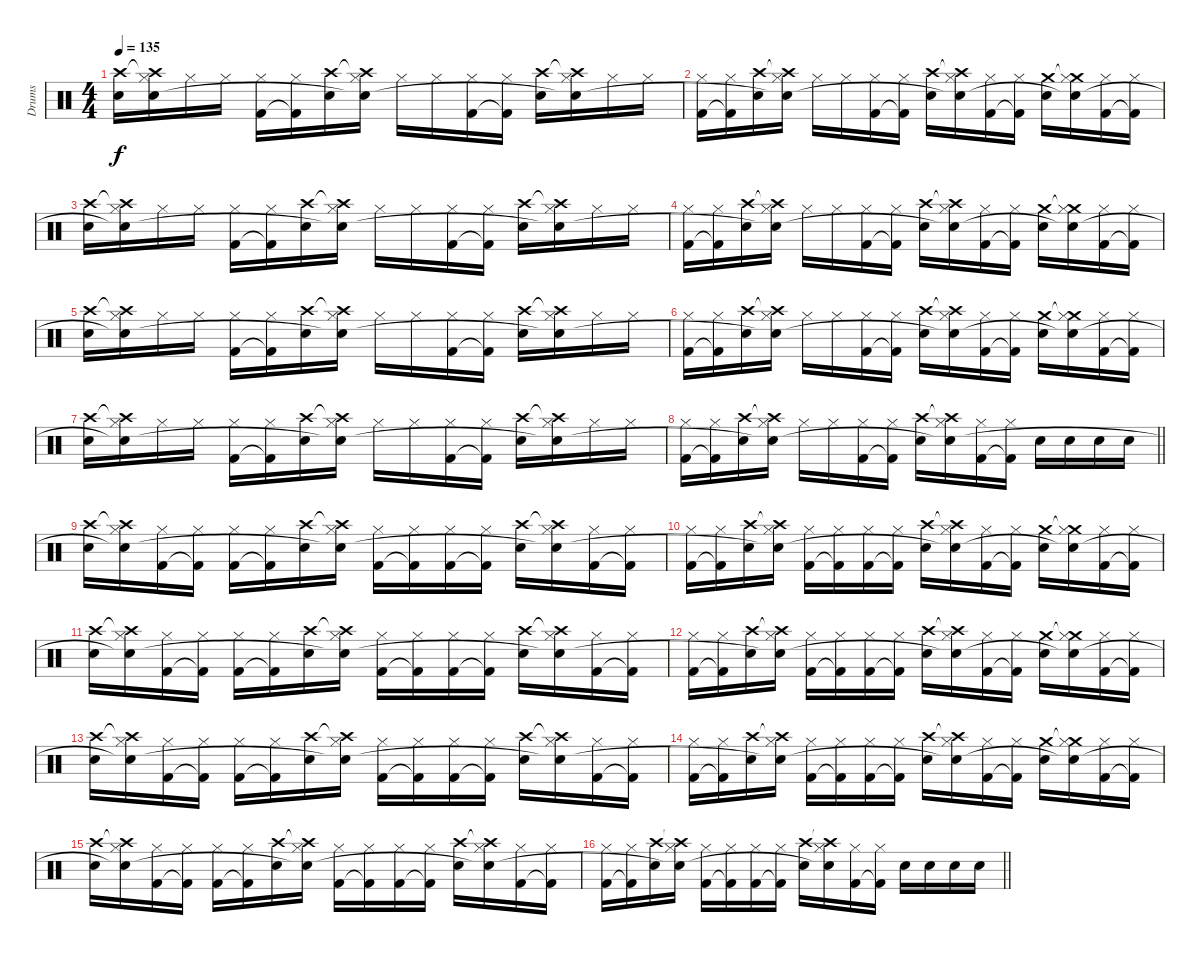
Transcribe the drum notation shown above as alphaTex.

\track ("Drums" "Drums") {instrument percussion}
\staff {score}
\articulation defaults
\ts (4 4)
\tempo 135
\clef neutral
\ks c
("Crash high (hit)" "Snare (hit) 2").16{dy f} ("Crash high (hit)"{t} "Hi-Hat (closed)" "Snare (hit) 2"{t}).16 "Hi-Hat (closed)".16 "Hi-Hat (closed)".16 ("Hi-Hat (closed)" "Kick (hit) 2").16 ("Hi-Hat (closed)" "Kick (hit) 2"{t}).16 ("Crash high (hit)" "Snare (hit) 2").16 ("Crash high (hit)"{t} "Hi-Hat (closed)" "Snare (hit) 2"{t}).16 "Hi-Hat (closed)".16 "Hi-Hat (closed)".16 ("Hi-Hat (closed)" "Kick (hit) 2").16 ("Hi-Hat (closed)" "Kick (hit) 2"{t}).16 ("Crash high (hit)" "Snare (hit) 2").16 ("Crash high (hit)"{t} "Hi-Hat (closed)" "Snare (hit) 2"{t}).16 "Hi-Hat (closed)".16 "Hi-Hat (closed)".16 |
("Hi-Hat (closed)" "Kick (hit) 2").16 ("Hi-Hat (closed)" "Kick (hit) 2"{t}).16 ("Crash high (hit)" "Snare (hit) 2").16 ("Crash high (hit)"{t} "Hi-Hat (closed)" "Snare (hit) 2"{t}).16 "Hi-Hat (closed)".16 "Hi-Hat (closed)".16 ("Hi-Hat (closed)" "Kick (hit) 2").16 ("Hi-Hat (closed)" "Kick (hit) 2"{t}).16 ("Crash high (hit)" "Snare (hit) 2").16 ("Crash high (hit)"{t} "Hi-Hat (closed)" "Snare (hit) 2"{t}).16 ("Hi-Hat (closed)" "Kick (hit) 2").16 ("Hi-Hat (closed)" "Kick (hit) 2"{t}).16 ("Crash medium (hit)" "Snare (hit) 2").16 ("Crash medium (hit)"{t} "Hi-Hat (closed)" "Snare (hit) 2"{t}).16 ("Hi-Hat (closed)" "Kick (hit) 2").16 ("Hi-Hat (closed)" "Kick (hit) 2"{t}).16 |
("Crash high (hit)" "Snare (hit) 2").16 ("Crash high (hit)"{t} "Hi-Hat (closed)" "Snare (hit) 2"{t}).16 "Hi-Hat (closed)".16 "Hi-Hat (closed)".16 ("Hi-Hat (closed)" "Kick (hit) 2").16 ("Hi-Hat (closed)" "Kick (hit) 2"{t}).16 ("Crash high (hit)" "Snare (hit) 2").16 ("Crash high (hit)"{t} "Hi-Hat (closed)" "Snare (hit) 2"{t}).16 "Hi-Hat (closed)".16 "Hi-Hat (closed)".16 ("Hi-Hat (closed)" "Kick (hit) 2").16 ("Hi-Hat (closed)" "Kick (hit) 2"{t}).16 ("Crash high (hit)" "Snare (hit) 2").16 ("Crash high (hit)"{t} "Hi-Hat (closed)" "Snare (hit) 2"{t}).16 "Hi-Hat (closed)".16 "Hi-Hat (closed)".16 |
("Hi-Hat (closed)" "Kick (hit) 2").16 ("Hi-Hat (closed)" "Kick (hit) 2"{t}).16 ("Crash high (hit)" "Snare (hit) 2").16 ("Crash high (hit)"{t} "Hi-Hat (closed)" "Snare (hit) 2"{t}).16 "Hi-Hat (closed)".16 "Hi-Hat (closed)".16 ("Hi-Hat (closed)" "Kick (hit) 2").16 ("Hi-Hat (closed)" "Kick (hit) 2"{t}).16 ("Crash high (hit)" "Snare (hit) 2").16 ("Crash high (hit)"{t} "Hi-Hat (closed)" "Snare (hit) 2"{t}).16 ("Hi-Hat (closed)" "Kick (hit) 2").16 ("Hi-Hat (closed)" "Kick (hit) 2"{t}).16 ("Crash medium (hit)" "Snare (hit) 2").16 ("Crash medium (hit)"{t} "Hi-Hat (closed)" "Snare (hit) 2"{t}).16 ("Hi-Hat (closed)" "Kick (hit) 2").16 ("Hi-Hat (closed)" "Kick (hit) 2"{t}).16 |
("Crash high (hit)" "Snare (hit) 2").16 ("Crash high (hit)"{t} "Hi-Hat (closed)" "Snare (hit) 2"{t}).16 "Hi-Hat (closed)".16 "Hi-Hat (closed)".16 ("Hi-Hat (closed)" "Kick (hit) 2").16 ("Hi-Hat (closed)" "Kick (hit) 2"{t}).16 ("Crash high (hit)" "Snare (hit) 2").16 ("Crash high (hit)"{t} "Hi-Hat (closed)" "Snare (hit) 2"{t}).16 "Hi-Hat (closed)".16 "Hi-Hat (closed)".16 ("Hi-Hat (closed)" "Kick (hit) 2").16 ("Hi-Hat (closed)" "Kick (hit) 2"{t}).16 ("Crash high (hit)" "Snare (hit) 2").16 ("Crash high (hit)"{t} "Hi-Hat (closed)" "Snare (hit) 2"{t}).16 "Hi-Hat (closed)".16 "Hi-Hat (closed)".16 |
("Hi-Hat (closed)" "Kick (hit) 2").16 ("Hi-Hat (closed)" "Kick (hit) 2"{t}).16 ("Crash high (hit)" "Snare (hit) 2").16 ("Crash high (hit)"{t} "Hi-Hat (closed)" "Snare (hit) 2"{t}).16 "Hi-Hat (closed)".16 "Hi-Hat (closed)".16 ("Hi-Hat (closed)" "Kick (hit) 2").16 ("Hi-Hat (closed)" "Kick (hit) 2"{t}).16 ("Crash high (hit)" "Snare (hit) 2").16 ("Crash high (hit)"{t} "Hi-Hat (closed)" "Snare (hit) 2"{t}).16 ("Hi-Hat (closed)" "Kick (hit) 2").16 ("Hi-Hat (closed)" "Kick (hit) 2"{t}).16 ("Crash medium (hit)" "Snare (hit) 2").16 ("Crash medium (hit)"{t} "Hi-Hat (closed)" "Snare (hit) 2"{t}).16 ("Hi-Hat (closed)" "Kick (hit) 2").16 ("Hi-Hat (closed)" "Kick (hit) 2"{t}).16 |
("Crash high (hit)" "Snare (hit) 2").16 ("Crash high (hit)"{t} "Hi-Hat (closed)" "Snare (hit) 2"{t}).16 "Hi-Hat (closed)".16 "Hi-Hat (closed)".16 ("Hi-Hat (closed)" "Kick (hit) 2").16 ("Hi-Hat (closed)" "Kick (hit) 2"{t}).16 ("Crash high (hit)" "Snare (hit) 2").16 ("Crash high (hit)"{t} "Hi-Hat (closed)" "Snare (hit) 2"{t}).16 "Hi-Hat (closed)".16 "Hi-Hat (closed)".16 ("Hi-Hat (closed)" "Kick (hit) 2").16 ("Hi-Hat (closed)" "Kick (hit) 2"{t}).16 ("Crash high (hit)" "Snare (hit) 2").16 ("Crash high (hit)"{t} "Hi-Hat (closed)" "Snare (hit) 2"{t}).16 "Hi-Hat (closed)".16 "Hi-Hat (closed)".16 |
\barLineRight lightlight
("Hi-Hat (closed)" "Kick (hit) 2").16 ("Hi-Hat (closed)" "Kick (hit) 2"{t}).16 ("Crash high (hit)" "Snare (hit) 2").16 ("Crash high (hit)"{t} "Hi-Hat (closed)" "Snare (hit) 2"{t}).16 "Hi-Hat (closed)".16 "Hi-Hat (closed)".16 ("Hi-Hat (closed)" "Kick (hit) 2").16 ("Hi-Hat (closed)" "Kick (hit) 2"{t}).16 ("Crash high (hit)" "Snare (hit) 2").16 ("Crash high (hit)"{t} "Hi-Hat (closed)" "Snare (hit) 2"{t}).16 ("Hi-Hat (closed)" "Kick (hit) 2").16 ("Hi-Hat (closed)" "Kick (hit) 2"{t}).16 "Snare (hit) 2".16 "Snare (hit) 2".16 "Snare (hit) 2".16 "Snare (hit) 2".16 |
("Crash high (hit)" "Snare (hit) 2").16 ("Crash high (hit)"{t} "Hi-Hat (closed)" "Snare (hit) 2"{t}).16 ("Hi-Hat (closed)" "Kick (hit) 2").16 ("Hi-Hat (closed)" "Kick (hit) 2"{t}).16 ("Hi-Hat (closed)" "Kick (hit) 2").16 ("Hi-Hat (closed)" "Kick (hit) 2"{t}).16 ("Crash high (hit)" "Snare (hit) 2").16 ("Crash high (hit)"{t} "Hi-Hat (closed)" "Snare (hit) 2"{t}).16 ("Hi-Hat (closed)" "Kick (hit) 2").16 ("Hi-Hat (closed)" "Kick (hit) 2"{t}).16 ("Hi-Hat (closed)" "Kick (hit) 2").16 ("Hi-Hat (closed)" "Kick (hit) 2"{t}).16 ("Crash high (hit)" "Snare (hit) 2").16 ("Crash high (hit)"{t} "Hi-Hat (closed)" "Snare (hit) 2"{t}).16 ("Hi-Hat (closed)" "Kick (hit) 2").16 ("Hi-Hat (closed)" "Kick (hit) 2"{t}).16 |
("Hi-Hat (closed)" "Kick (hit) 2").16 ("Hi-Hat (closed)" "Kick (hit) 2"{t}).16 ("Crash high (hit)" "Snare (hit) 2").16 ("Crash high (hit)"{t} "Hi-Hat (closed)" "Snare (hit) 2"{t}).16 ("Hi-Hat (closed)" "Kick (hit) 2").16 ("Hi-Hat (closed)" "Kick (hit) 2"{t}).16 ("Hi-Hat (closed)" "Kick (hit) 2").16 ("Hi-Hat (closed)" "Kick (hit) 2"{t}).16 ("Crash high (hit)" "Snare (hit) 2").16 ("Crash high (hit)"{t} "Hi-Hat (closed)" "Snare (hit) 2"{t}).16 ("Hi-Hat (closed)" "Kick (hit) 2").16 ("Hi-Hat (closed)" "Kick (hit) 2"{t}).16 ("Crash medium (hit)" "Snare (hit) 2").16 ("Crash medium (hit)"{t} "Hi-Hat (closed)" "Snare (hit) 2"{t}).16 ("Hi-Hat (closed)" "Kick (hit) 2").16 ("Hi-Hat (closed)" "Kick (hit) 2"{t}).16 |
("Crash high (hit)" "Snare (hit) 2").16 ("Crash high (hit)"{t} "Hi-Hat (closed)" "Snare (hit) 2"{t}).16 ("Hi-Hat (closed)" "Kick (hit) 2").16 ("Hi-Hat (closed)" "Kick (hit) 2"{t}).16 ("Hi-Hat (closed)" "Kick (hit) 2").16 ("Hi-Hat (closed)" "Kick (hit) 2"{t}).16 ("Crash high (hit)" "Snare (hit) 2").16 ("Crash high (hit)"{t} "Hi-Hat (closed)" "Snare (hit) 2"{t}).16 ("Hi-Hat (closed)" "Kick (hit) 2").16 ("Hi-Hat (closed)" "Kick (hit) 2"{t}).16 ("Hi-Hat (closed)" "Kick (hit) 2").16 ("Hi-Hat (closed)" "Kick (hit) 2"{t}).16 ("Crash high (hit)" "Snare (hit) 2").16 ("Crash high (hit)"{t} "Hi-Hat (closed)" "Snare (hit) 2"{t}).16 ("Hi-Hat (closed)" "Kick (hit) 2").16 ("Hi-Hat (closed)" "Kick (hit) 2"{t}).16 |
("Hi-Hat (closed)" "Kick (hit) 2").16 ("Hi-Hat (closed)" "Kick (hit) 2"{t}).16 ("Crash high (hit)" "Snare (hit) 2").16 ("Crash high (hit)"{t} "Hi-Hat (closed)" "Snare (hit) 2"{t}).16 ("Hi-Hat (closed)" "Kick (hit) 2").16 ("Hi-Hat (closed)" "Kick (hit) 2"{t}).16 ("Hi-Hat (closed)" "Kick (hit) 2").16 ("Hi-Hat (closed)" "Kick (hit) 2"{t}).16 ("Crash high (hit)" "Snare (hit) 2").16 ("Crash high (hit)"{t} "Hi-Hat (closed)" "Snare (hit) 2"{t}).16 ("Hi-Hat (closed)" "Kick (hit) 2").16 ("Hi-Hat (closed)" "Kick (hit) 2"{t}).16 ("Crash medium (hit)" "Snare (hit) 2").16 ("Crash medium (hit)"{t} "Hi-Hat (closed)" "Snare (hit) 2"{t}).16 ("Hi-Hat (closed)" "Kick (hit) 2").16 ("Hi-Hat (closed)" "Kick (hit) 2"{t}).16 |
("Crash high (hit)" "Snare (hit) 2").16 ("Crash high (hit)"{t} "Hi-Hat (closed)" "Snare (hit) 2"{t}).16 ("Hi-Hat (closed)" "Kick (hit) 2").16 ("Hi-Hat (closed)" "Kick (hit) 2"{t}).16 ("Hi-Hat (closed)" "Kick (hit) 2").16 ("Hi-Hat (closed)" "Kick (hit) 2"{t}).16 ("Crash high (hit)" "Snare (hit) 2").16 ("Crash high (hit)"{t} "Hi-Hat (closed)" "Snare (hit) 2"{t}).16 ("Hi-Hat (closed)" "Kick (hit) 2").16 ("Hi-Hat (closed)" "Kick (hit) 2"{t}).16 ("Hi-Hat (closed)" "Kick (hit) 2").16 ("Hi-Hat (closed)" "Kick (hit) 2"{t}).16 ("Crash high (hit)" "Snare (hit) 2").16 ("Crash high (hit)"{t} "Hi-Hat (closed)" "Snare (hit) 2"{t}).16 ("Hi-Hat (closed)" "Kick (hit) 2").16 ("Hi-Hat (closed)" "Kick (hit) 2"{t}).16 |
("Hi-Hat (closed)" "Kick (hit) 2").16 ("Hi-Hat (closed)" "Kick (hit) 2"{t}).16 ("Crash high (hit)" "Snare (hit) 2").16 ("Crash high (hit)"{t} "Hi-Hat (closed)" "Snare (hit) 2"{t}).16 ("Hi-Hat (closed)" "Kick (hit) 2").16 ("Hi-Hat (closed)" "Kick (hit) 2"{t}).16 ("Hi-Hat (closed)" "Kick (hit) 2").16 ("Hi-Hat (closed)" "Kick (hit) 2"{t}).16 ("Crash high (hit)" "Snare (hit) 2").16 ("Crash high (hit)"{t} "Hi-Hat (closed)" "Snare (hit) 2"{t}).16 ("Hi-Hat (closed)" "Kick (hit) 2").16 ("Hi-Hat (closed)" "Kick (hit) 2"{t}).16 ("Crash medium (hit)" "Snare (hit) 2").16 ("Crash medium (hit)"{t} "Hi-Hat (closed)" "Snare (hit) 2"{t}).16 ("Hi-Hat (closed)" "Kick (hit) 2").16 ("Hi-Hat (closed)" "Kick (hit) 2"{t}).16 |
("Crash high (hit)" "Snare (hit) 2").16 ("Crash high (hit)"{t} "Hi-Hat (closed)" "Snare (hit) 2"{t}).16 ("Hi-Hat (closed)" "Kick (hit) 2").16 ("Hi-Hat (closed)" "Kick (hit) 2"{t}).16 ("Hi-Hat (closed)" "Kick (hit) 2").16 ("Hi-Hat (closed)" "Kick (hit) 2"{t}).16 ("Crash high (hit)" "Snare (hit) 2").16 ("Crash high (hit)"{t} "Hi-Hat (closed)" "Snare (hit) 2"{t}).16 ("Hi-Hat (closed)" "Kick (hit) 2").16 ("Hi-Hat (closed)" "Kick (hit) 2"{t}).16 ("Hi-Hat (closed)" "Kick (hit) 2").16 ("Hi-Hat (closed)" "Kick (hit) 2"{t}).16 ("Crash high (hit)" "Snare (hit) 2").16 ("Crash high (hit)"{t} "Hi-Hat (closed)" "Snare (hit) 2"{t}).16 ("Hi-Hat (closed)" "Kick (hit) 2").16 ("Hi-Hat (closed)" "Kick (hit) 2"{t}).16 |
\barLineRight lightlight
("Hi-Hat (closed)" "Kick (hit) 2").16 ("Hi-Hat (closed)" "Kick (hit) 2"{t}).16 ("Crash high (hit)" "Snare (hit) 2").16 ("Crash high (hit)"{t} "Hi-Hat (closed)" "Snare (hit) 2"{t}).16 ("Hi-Hat (closed)" "Kick (hit) 2").16 ("Hi-Hat (closed)" "Kick (hit) 2"{t}).16 ("Hi-Hat (closed)" "Kick (hit) 2").16 ("Hi-Hat (closed)" "Kick (hit) 2"{t}).16 ("Crash high (hit)" "Snare (hit) 2").16 ("Crash high (hit)"{t} "Hi-Hat (closed)" "Snare (hit) 2"{t}).16 ("Hi-Hat (closed)" "Kick (hit) 2").16 ("Hi-Hat (closed)" "Kick (hit) 2"{t}).16 "Snare (hit) 2".16 "Snare (hit) 2".16 "Snare (hit) 2".16 "Snare (hit) 2".16
